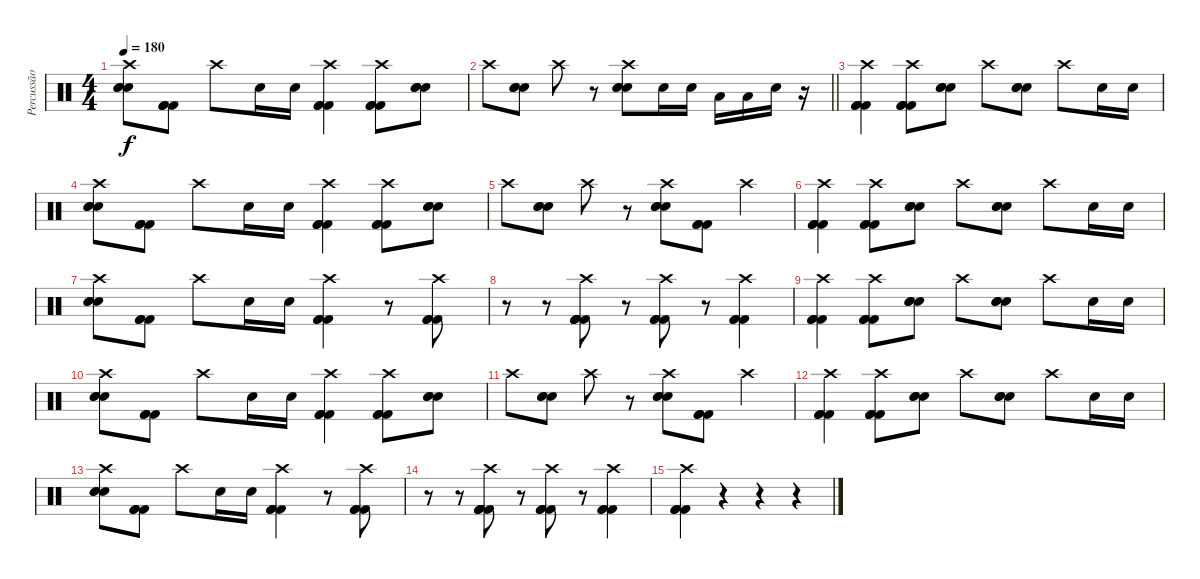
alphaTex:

\track ("Percussão" "Percussão") {instrument percussion}
\staff {score}
\articulation defaults
\ts (4 4)
\tempo 180
\clef neutral
\ks c
("Crash high (hit)" "Electric Snare (hit)" "Electric Snare (hit)" "Electric Snare (hit)").8{dy f} ("Kick (hit) 2" "Kick (hit) 2" "Kick (hit) 2").8 "Crash high (hit)".8 "Electric Snare (hit)".16 "Electric Snare (hit)".16 ("Crash high (hit)" "Kick (hit) 2" "Kick (hit) 2" "Kick (hit) 2").4 ("Crash high (hit)" "Kick (hit) 2" "Kick (hit) 2" "Kick (hit) 2").8 ("Electric Snare (hit)" "Electric Snare (hit)" "Electric Snare (hit)").8 |
\barLineRight lightlight "Crash high (hit)".8
("Electric Snare (hit)" "Electric Snare (hit)" "Electric Snare (hit)").8 "Crash high (hit)".8 r.8 ("Crash high (hit)" "Electric Snare (hit)" "Electric Snare (hit)" "Electric Snare (hit)").8 "Electric Snare (hit)".16 "Electric Snare (hit)".16 "Low Tom (hit)".16 "Low Tom (hit)".16 "Electric Snare (hit)".16 r.16 |
\section ("" "")
("Crash high (hit)" "Kick (hit) 2" "Kick (hit) 2" "Kick (hit) 2").4 ("Crash high (hit)" "Kick (hit) 2" "Kick (hit) 2" "Kick (hit) 2").8 ("Electric Snare (hit)" "Electric Snare (hit)" "Electric Snare (hit)").8 "Crash high (hit)".8 ("Electric Snare (hit)" "Electric Snare (hit)" "Electric Snare (hit)").8 "Crash high (hit)".8 "Electric Snare (hit)".16 "Electric Snare (hit)".16 |
("Crash high (hit)" "Electric Snare (hit)" "Electric Snare (hit)" "Electric Snare (hit)").8 ("Kick (hit) 2" "Kick (hit) 2" "Kick (hit) 2").8 "Crash high (hit)".8 "Electric Snare (hit)".16 "Electric Snare (hit)".16 ("Crash high (hit)" "Kick (hit) 2" "Kick (hit) 2" "Kick (hit) 2").4 ("Crash high (hit)" "Kick (hit) 2" "Kick (hit) 2" "Kick (hit) 2").8 ("Electric Snare (hit)" "Electric Snare (hit)" "Electric Snare (hit)").8 |
"Crash high (hit)".8 ("Electric Snare (hit)" "Electric Snare (hit)" "Electric Snare (hit)").8 "Crash high (hit)".8 r.8 ("Crash high (hit)" "Electric Snare (hit)" "Electric Snare (hit)" "Electric Snare (hit)").8 ("Kick (hit) 2" "Kick (hit) 2" "Kick (hit) 2").8 "Crash high (hit)".4 |
("Crash high (hit)" "Kick (hit) 2" "Kick (hit) 2" "Kick (hit) 2").4 ("Crash high (hit)" "Kick (hit) 2" "Kick (hit) 2" "Kick (hit) 2").8 ("Electric Snare (hit)" "Electric Snare (hit)" "Electric Snare (hit)").8 "Crash high (hit)".8 ("Electric Snare (hit)" "Electric Snare (hit)" "Electric Snare (hit)").8 "Crash high (hit)".8 "Electric Snare (hit)".16 "Electric Snare (hit)".16 |
("Crash high (hit)" "Electric Snare (hit)" "Electric Snare (hit)" "Electric Snare (hit)").8 ("Kick (hit) 2" "Kick (hit) 2" "Kick (hit) 2").8 "Crash high (hit)".8 "Electric Snare (hit)".16 "Electric Snare (hit)".16 ("Crash high (hit)" "Kick (hit) 2" "Kick (hit) 2" "Kick (hit) 2").4 r.8 ("Crash high (hit)" "Kick (hit) 2" "Kick (hit) 2" "Kick (hit) 2").8 |
r.8 r.8 ("Crash high (hit)" "Kick (hit) 2" "Kick (hit) 2" "Kick (hit) 2" "Kick (hit) 2").8 r.8 ("Crash high (hit)" "Kick (hit) 2" "Kick (hit) 2" "Kick (hit) 2").8 r.8 ("Crash high (hit)" "Kick (hit) 2" "Kick (hit) 2" "Kick (hit) 2").4 |
("Crash high (hit)" "Kick (hit) 2" "Kick (hit) 2" "Kick (hit) 2").4 ("Crash high (hit)" "Kick (hit) 2" "Kick (hit) 2" "Kick (hit) 2").8 ("Electric Snare (hit)" "Electric Snare (hit)" "Electric Snare (hit)").8 "Crash high (hit)".8 ("Electric Snare (hit)" "Electric Snare (hit)" "Electric Snare (hit)").8 "Crash high (hit)".8 "Electric Snare (hit)".16 "Electric Snare (hit)".16 |
("Crash high (hit)" "Electric Snare (hit)" "Electric Snare (hit)" "Electric Snare (hit)").8 ("Kick (hit) 2" "Kick (hit) 2" "Kick (hit) 2").8 "Crash high (hit)".8 "Electric Snare (hit)".16 "Electric Snare (hit)".16 ("Crash high (hit)" "Kick (hit) 2" "Kick (hit) 2" "Kick (hit) 2").4 ("Crash high (hit)" "Kick (hit) 2" "Kick (hit) 2" "Kick (hit) 2").8 ("Electric Snare (hit)" "Electric Snare (hit)" "Electric Snare (hit)").8 |
"Crash high (hit)".8 ("Electric Snare (hit)" "Electric Snare (hit)" "Electric Snare (hit)").8 "Crash high (hit)".8 r.8 ("Crash high (hit)" "Electric Snare (hit)" "Electric Snare (hit)" "Electric Snare (hit)").8 ("Kick (hit) 2" "Kick (hit) 2" "Kick (hit) 2").8 "Crash high (hit)".4 |
("Crash high (hit)" "Kick (hit) 2" "Kick (hit) 2" "Kick (hit) 2").4 ("Crash high (hit)" "Kick (hit) 2" "Kick (hit) 2" "Kick (hit) 2").8 ("Electric Snare (hit)" "Electric Snare (hit)" "Electric Snare (hit)").8 "Crash high (hit)".8 ("Electric Snare (hit)" "Electric Snare (hit)" "Electric Snare (hit)").8 "Crash high (hit)".8 "Electric Snare (hit)".16 "Electric Snare (hit)".16 |
("Crash high (hit)" "Electric Snare (hit)" "Electric Snare (hit)" "Electric Snare (hit)").8 ("Kick (hit) 2" "Kick (hit) 2" "Kick (hit) 2").8 "Crash high (hit)".8 "Electric Snare (hit)".16 "Electric Snare (hit)".16 ("Crash high (hit)" "Kick (hit) 2" "Kick (hit) 2" "Kick (hit) 2").4 r.8 ("Crash high (hit)" "Kick (hit) 2" "Kick (hit) 2" "Kick (hit) 2").8 |
r.8 r.8 ("Crash high (hit)" "Kick (hit) 2" "Kick (hit) 2" "Kick (hit) 2" "Kick (hit) 2").8 r.8 ("Crash high (hit)" "Kick (hit) 2" "Kick (hit) 2" "Kick (hit) 2").8 r.8 ("Crash high (hit)" "Kick (hit) 2" "Kick (hit) 2" "Kick (hit) 2").4 |
("Crash high (hit)" "Kick (hit) 2" "Kick (hit) 2" "Kick (hit) 2").4 r.4 r.4 r.4
